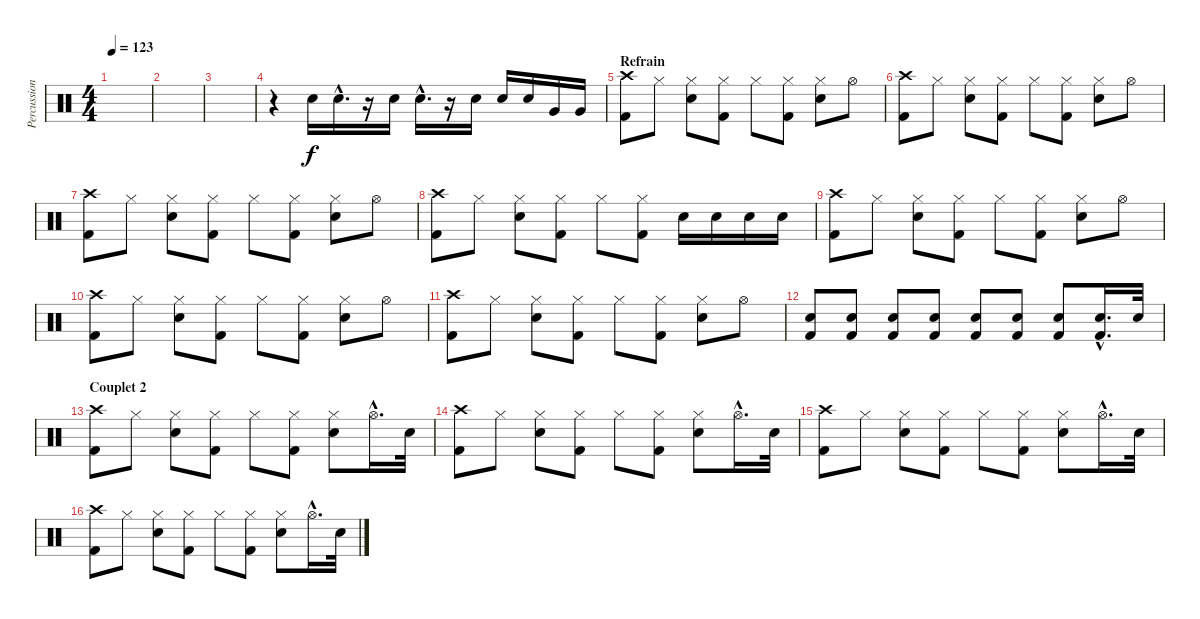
\track ("Percussions" "Percussion") {instrument percussion}
\staff {score}
\articulation defaults
\ts (4 4)
\tempo 123
\clef neutral
\ks c
|
|
|
r.4 "Snare (hit) 2".16 "Snare (hit) 2"{hac}.16{d} r.16 "Snare (hit) 2".16 "Snare (hit) 2"{hac}.16{d} r.16 "Snare (hit) 2".16 "Snare (hit) 2".16 "Snare (hit) 2".16 "Very Low Tom (hit)".16 "Very Low Tom (hit)".16 |
\section ("" "Refrain")
("Crash high (hit)" "Kick (hit) 2").8 "Hi-Hat (closed)".8 ("Hi-Hat (closed)" "Snare (hit) 2").8 ("Hi-Hat (closed)" "Kick (hit) 2").8 "Hi-Hat (closed)".8 ("Hi-Hat (closed)" "Kick (hit) 2").8 ("Hi-Hat (closed)" "Snare (hit) 2").8 "Hi-Hat (open)".8 |
("Crash high (hit)" "Kick (hit) 2").8 "Hi-Hat (closed)".8 ("Hi-Hat (closed)" "Snare (hit) 2").8 ("Hi-Hat (closed)" "Kick (hit) 2").8 "Hi-Hat (closed)".8 ("Hi-Hat (closed)" "Kick (hit) 2").8 ("Hi-Hat (closed)" "Snare (hit) 2").8 "Hi-Hat (open)".8 |
("Crash high (hit)" "Kick (hit) 2").8 "Hi-Hat (closed)".8 ("Hi-Hat (closed)" "Snare (hit) 2").8 ("Hi-Hat (closed)" "Kick (hit) 2").8 "Hi-Hat (closed)".8 ("Hi-Hat (closed)" "Kick (hit) 2").8 ("Hi-Hat (closed)" "Snare (hit) 2").8 "Hi-Hat (open)".8 |
("Crash high (hit)" "Kick (hit) 2").8 "Hi-Hat (closed)".8 ("Hi-Hat (closed)" "Snare (hit) 2").8 ("Hi-Hat (closed)" "Kick (hit) 2").8 "Hi-Hat (closed)".8 ("Hi-Hat (closed)" "Kick (hit) 2").8 "Snare (hit) 2".16 "Snare (hit) 2".16 "Snare (hit) 2".16 "Snare (hit) 2".16 |
("Crash high (hit)" "Kick (hit) 2").8 "Hi-Hat (closed)".8 ("Hi-Hat (closed)" "Snare (hit) 2").8 ("Hi-Hat (closed)" "Kick (hit) 2").8 "Hi-Hat (closed)".8 ("Hi-Hat (closed)" "Kick (hit) 2").8 ("Hi-Hat (closed)" "Snare (hit) 2").8 "Hi-Hat (open)".8 |
("Crash high (hit)" "Kick (hit) 2").8 "Hi-Hat (closed)".8 ("Hi-Hat (closed)" "Snare (hit) 2").8 ("Hi-Hat (closed)" "Kick (hit) 2").8 "Hi-Hat (closed)".8 ("Hi-Hat (closed)" "Kick (hit) 2").8 ("Hi-Hat (closed)" "Snare (hit) 2").8 "Hi-Hat (open)".8 |
("Crash high (hit)" "Kick (hit) 2").8 "Hi-Hat (closed)".8 ("Hi-Hat (closed)" "Snare (hit) 2").8 ("Hi-Hat (closed)" "Kick (hit) 2").8 "Hi-Hat (closed)".8 ("Hi-Hat (closed)" "Kick (hit) 2").8 ("Hi-Hat (closed)" "Snare (hit) 2").8 "Hi-Hat (open)".8 |
("Snare (hit) 2" "Kick (hit) 2").8 ("Snare (hit) 2" "Kick (hit) 2").8 ("Snare (hit) 2" "Kick (hit) 2").8 ("Snare (hit) 2" "Kick (hit) 2").8 ("Snare (hit) 2" "Kick (hit) 2").8 ("Snare (hit) 2" "Kick (hit) 2").8 ("Snare (hit) 2" "Kick (hit) 2").8 ("Snare (hit) 2"{hac} "Kick (hit) 2"{hac}).16{d} "Snare (hit) 2".32 |
\section ("" "Couplet 2")
("Crash high (hit)" "Kick (hit) 2").8 "Hi-Hat (closed)".8 ("Hi-Hat (closed)" "Snare (hit) 2").8 ("Hi-Hat (closed)" "Kick (hit) 2").8 "Hi-Hat (closed)".8 ("Hi-Hat (closed)" "Kick (hit) 2").8 ("Hi-Hat (closed)" "Snare (hit) 2").8 "Hi-Hat (open)"{hac}.16{d} "Snare (hit) 2".32 |
("Crash high (hit)" "Kick (hit) 2").8 "Hi-Hat (closed)".8 ("Hi-Hat (closed)" "Snare (hit) 2").8 ("Hi-Hat (closed)" "Kick (hit) 2").8 "Hi-Hat (closed)".8 ("Hi-Hat (closed)" "Kick (hit) 2").8 ("Hi-Hat (closed)" "Snare (hit) 2").8 "Hi-Hat (open)"{hac}.16{d} "Snare (hit) 2".32 |
("Crash high (hit)" "Kick (hit) 2").8 "Hi-Hat (closed)".8 ("Hi-Hat (closed)" "Snare (hit) 2").8 ("Hi-Hat (closed)" "Kick (hit) 2").8 "Hi-Hat (closed)".8 ("Hi-Hat (closed)" "Kick (hit) 2").8 ("Hi-Hat (closed)" "Snare (hit) 2").8 "Hi-Hat (open)"{hac}.16{d} "Snare (hit) 2".32 |
("Crash high (hit)" "Kick (hit) 2").8 "Hi-Hat (closed)".8 ("Hi-Hat (closed)" "Snare (hit) 2").8 ("Hi-Hat (closed)" "Kick (hit) 2").8 "Hi-Hat (closed)".8 ("Hi-Hat (closed)" "Kick (hit) 2").8 ("Hi-Hat (closed)" "Snare (hit) 2").8 "Hi-Hat (open)"{hac}.16{d} "Snare (hit) 2".32
